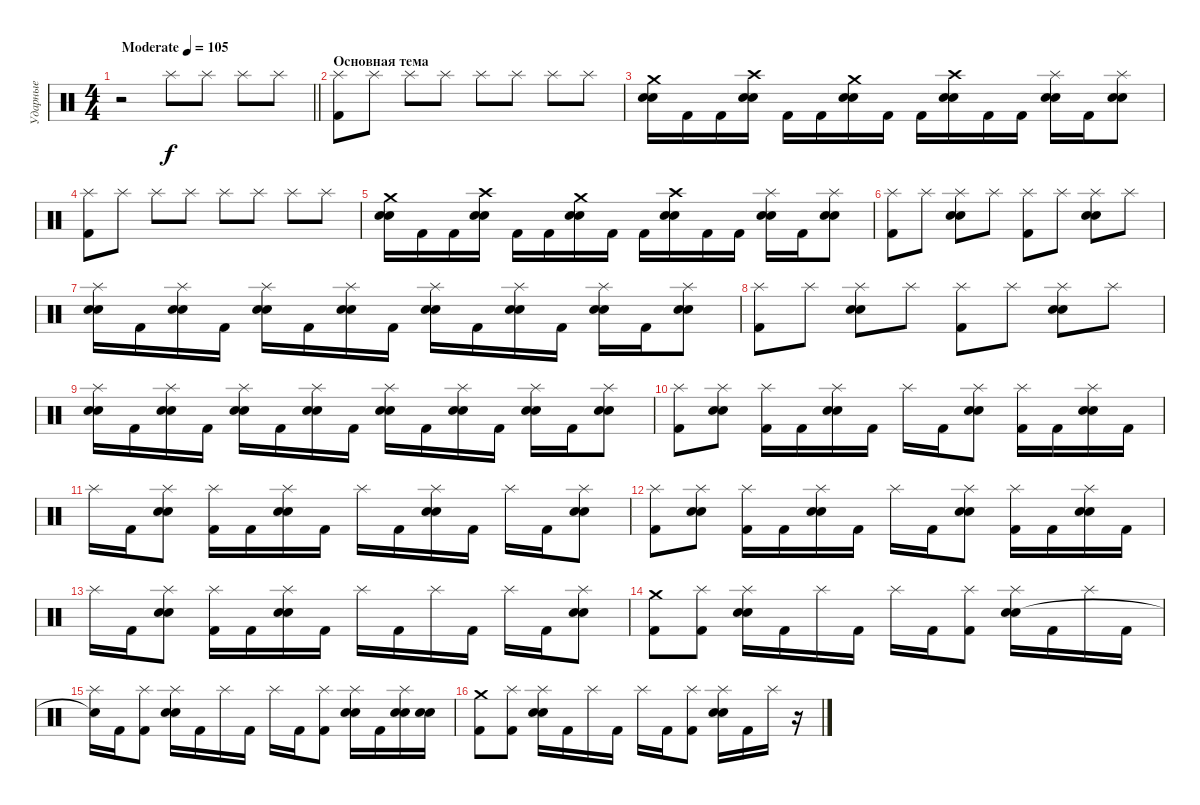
\track ("Ударные" "Ударные") {instrument percussion}
\staff {score}
\articulation defaults
\ts (4 4)
\tempo (105 "Moderate")
\clef neutral
\barLineRight lightlight
\ks c
r.2{dy f} "Splash (hit)".8 "Splash (hit)".8 "Splash (hit)".8 "Splash (hit)".8 |
\section ("" "Основная тема")
("Splash (hit)" "Kick (hit) 2").8 "Splash (hit)".8 "Splash (hit)".8 "Splash (hit)".8 "Splash (hit)".8 "Splash (hit)".8 "Splash (hit)".8 "Splash (hit)".8 |
("Crash medium (hit)" "Electric Snare (hit)" "Snare (hit) 2").16 "Kick (hit) 2".16 "Kick (hit) 2".16 ("Crash high (hit)" "Electric Snare (hit)" "Snare (hit) 2").16 "Kick (hit) 2".16 "Kick (hit) 2".16 ("Crash medium (hit)" "Electric Snare (hit)" "Snare (hit) 2").16 "Kick (hit) 2".16 "Kick (hit) 2".16 ("Crash high (hit)" "Electric Snare (hit)" "Snare (hit) 2").16 "Kick (hit) 2".16 "Kick (hit) 2".16 ("Splash (hit)" "Electric Snare (hit)" "Snare (hit) 2").16 "Kick (hit) 2".16 ("Splash (hit)" "Electric Snare (hit)" "Snare (hit) 2").8 |
("Splash (hit)" "Kick (hit) 2").8 "Splash (hit)".8 "Splash (hit)".8 "Splash (hit)".8 "Splash (hit)".8 "Splash (hit)".8 "Splash (hit)".8 "Splash (hit)".8 |
("Crash medium (hit)" "Electric Snare (hit)" "Snare (hit) 2").16 "Kick (hit) 2".16 "Kick (hit) 2".16 ("Crash high (hit)" "Electric Snare (hit)" "Snare (hit) 2").16 "Kick (hit) 2".16 "Kick (hit) 2".16 ("Crash medium (hit)" "Electric Snare (hit)" "Snare (hit) 2").16 "Kick (hit) 2".16 "Kick (hit) 2".16 ("Crash high (hit)" "Electric Snare (hit)" "Snare (hit) 2").16 "Kick (hit) 2".16 "Kick (hit) 2".16 ("Splash (hit)" "Electric Snare (hit)" "Snare (hit) 2").16 "Kick (hit) 2".16 ("Splash (hit)" "Electric Snare (hit)" "Snare (hit) 2").8 |
("Splash (hit)" "Kick (hit) 2").8 "Splash (hit)".8 ("Splash (hit)" "Electric Snare (hit)" "Snare (hit) 2").8 "Splash (hit)".8 ("Splash (hit)" "Kick (hit) 2").8 "Splash (hit)".8 ("Splash (hit)" "Electric Snare (hit)" "Snare (hit) 2").8 "Splash (hit)".8 |
("Splash (hit)" "Electric Snare (hit)" "Snare (hit) 2").16 "Kick (hit) 2".16 ("Splash (hit)" "Electric Snare (hit)" "Snare (hit) 2").16 "Kick (hit) 2".16 ("Splash (hit)" "Electric Snare (hit)" "Snare (hit) 2").16 "Kick (hit) 2".16 ("Splash (hit)" "Electric Snare (hit)" "Snare (hit) 2").16 "Kick (hit) 2".16 ("Splash (hit)" "Electric Snare (hit)" "Snare (hit) 2").16 "Kick (hit) 2".16 ("Splash (hit)" "Electric Snare (hit)" "Snare (hit) 2").16 "Kick (hit) 2".16 ("Splash (hit)" "Electric Snare (hit)" "Snare (hit) 2").16 "Kick (hit) 2".16 ("Splash (hit)" "Electric Snare (hit)" "Snare (hit) 2").8 |
("Splash (hit)" "Kick (hit) 2").8 "Splash (hit)".8 ("Splash (hit)" "Electric Snare (hit)" "Snare (hit) 2").8 "Splash (hit)".8 ("Splash (hit)" "Kick (hit) 2").8 "Splash (hit)".8 ("Splash (hit)" "Electric Snare (hit)" "Snare (hit) 2").8 "Splash (hit)".8 |
("Splash (hit)" "Electric Snare (hit)" "Snare (hit) 2").16 "Kick (hit) 2".16 ("Splash (hit)" "Electric Snare (hit)" "Snare (hit) 2").16 "Kick (hit) 2".16 ("Splash (hit)" "Electric Snare (hit)" "Snare (hit) 2").16 "Kick (hit) 2".16 ("Splash (hit)" "Electric Snare (hit)" "Snare (hit) 2").16 "Kick (hit) 2".16 ("Splash (hit)" "Electric Snare (hit)" "Snare (hit) 2").16 "Kick (hit) 2".16 ("Splash (hit)" "Electric Snare (hit)" "Snare (hit) 2").16 "Kick (hit) 2".16 ("Splash (hit)" "Electric Snare (hit)" "Snare (hit) 2").16 "Kick (hit) 2".16 ("Splash (hit)" "Electric Snare (hit)" "Snare (hit) 2").8 |
("Splash (hit)" "Kick (hit) 2").8 ("Splash (hit)" "Electric Snare (hit)" "Snare (hit) 2").8 ("Splash (hit)" "Kick (hit) 2").16 "Kick (hit) 2".16 ("Splash (hit)" "Electric Snare (hit)" "Snare (hit) 2").16 "Kick (hit) 2".16 "Splash (hit)".16 "Kick (hit) 2".16 ("Splash (hit)" "Electric Snare (hit)" "Snare (hit) 2").8 ("Splash (hit)" "Kick (hit) 2").16 "Kick (hit) 2".16 ("Splash (hit)" "Electric Snare (hit)" "Snare (hit) 2").16 "Kick (hit) 2".16 |
"Splash (hit)".16 "Kick (hit) 2".16 ("Splash (hit)" "Electric Snare (hit)" "Snare (hit) 2").8 ("Splash (hit)" "Kick (hit) 2").16 "Kick (hit) 2".16 ("Splash (hit)" "Electric Snare (hit)" "Snare (hit) 2").16 "Kick (hit) 2".16 "Splash (hit)".16 "Kick (hit) 2".16 ("Splash (hit)" "Electric Snare (hit)" "Snare (hit) 2").16 "Kick (hit) 2".16 "Splash (hit)".16 "Kick (hit) 2".16 ("Splash (hit)" "Electric Snare (hit)" "Snare (hit) 2").8 |
("Splash (hit)" "Kick (hit) 2").8 ("Splash (hit)" "Electric Snare (hit)" "Snare (hit) 2").8 ("Splash (hit)" "Kick (hit) 2").16 "Kick (hit) 2".16 ("Splash (hit)" "Electric Snare (hit)" "Snare (hit) 2").16 "Kick (hit) 2".16 "Splash (hit)".16 "Kick (hit) 2".16 ("Splash (hit)" "Electric Snare (hit)" "Snare (hit) 2").8 ("Splash (hit)" "Kick (hit) 2").16 "Kick (hit) 2".16 ("Splash (hit)" "Electric Snare (hit)" "Snare (hit) 2").16 "Kick (hit) 2".16 |
"Splash (hit)".16 "Kick (hit) 2".16 ("Splash (hit)" "Electric Snare (hit)" "Snare (hit) 2").8 ("Splash (hit)" "Kick (hit) 2").16 "Kick (hit) 2".16 ("Splash (hit)" "Electric Snare (hit)" "Snare (hit) 2").16 "Kick (hit) 2".16 "Splash (hit)".16 "Kick (hit) 2".16 "Splash (hit)".16 "Kick (hit) 2".16 "Splash (hit)".16 "Kick (hit) 2".16 ("Splash (hit)" "Electric Snare (hit)" "Snare (hit) 2").8 |
("Crash medium (hit)" "Kick (hit) 2").8 ("Splash (hit)" "Kick (hit) 2").8 ("Splash (hit)" "Electric Snare (hit)" "Snare (hit) 2").16 "Kick (hit) 2".16 "Splash (hit)".16 "Kick (hit) 2".16 "Splash (hit)".16 "Kick (hit) 2".16 ("Splash (hit)" "Kick (hit) 2").8 ("Splash (hit)" "Electric Snare (hit)" "Snare (hit) 2").16 "Kick (hit) 2".16 "Splash (hit)".16 "Kick (hit) 2".16 |
("Splash (hit)" "Snare (hit)"{t}).16 "Kick (hit) 2".16 ("Splash (hit)" "Kick (hit) 2").8 ("Splash (hit)" "Electric Snare (hit)" "Snare (hit) 2").16 "Kick (hit) 2".16 "Splash (hit)".16 "Kick (hit) 2".16 "Splash (hit)".16 "Kick (hit) 2".16 ("Splash (hit)" "Kick (hit) 2").8 ("Splash (hit)" "Electric Snare (hit)" "Snare (hit) 2").16 "Kick (hit) 2".16 ("Splash (hit)" "Electric Snare (hit)" "Snare (hit) 2").16 ("Electric Snare (hit)" "Snare (hit) 2").16 |
("Crash medium (hit)" "Kick (hit) 2").8 ("Splash (hit)" "Kick (hit) 2").8 ("Splash (hit)" "Electric Snare (hit)" "Snare (hit) 2").16 "Kick (hit) 2".16 "Splash (hit)".16 "Kick (hit) 2".16 "Splash (hit)".16 "Kick (hit) 2".16 ("Splash (hit)" "Kick (hit) 2").8 ("Splash (hit)" "Electric Snare (hit)" "Snare (hit) 2").16 "Kick (hit) 2".16 "Splash (hit)".16 r.16
